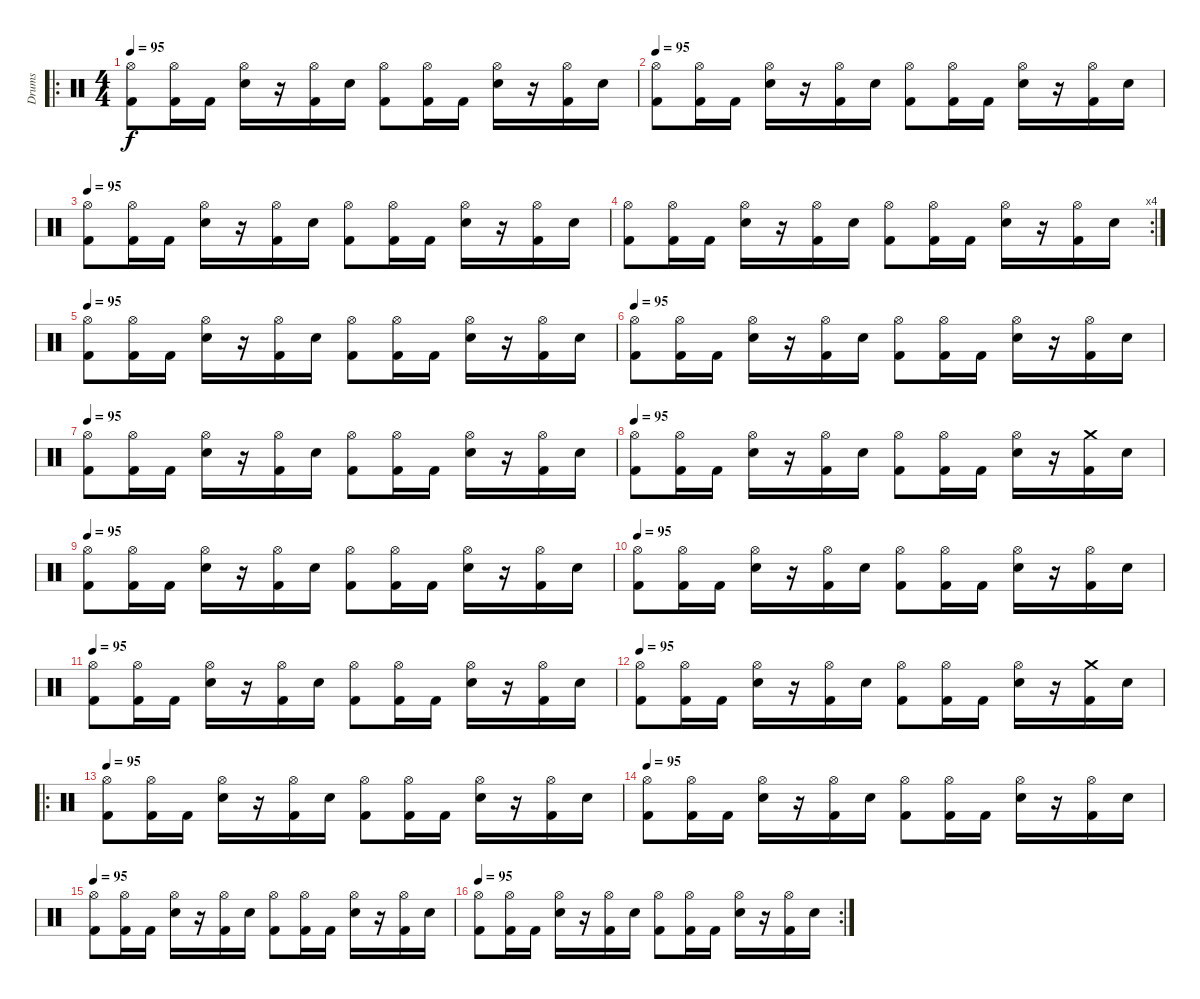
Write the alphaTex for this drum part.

\track ("Drums" "Drums") {instrument percussion}
\staff {score}
\articulation defaults
\ro
\ts (4 4)
\tempo 95
\clef neutral
\ks c
("Kick (hit) 2" "Hi-Hat (open)").8{dy f} ("Kick (hit) 2" "Hi-Hat (open)").16 "Kick (hit) 2".16 ("Electric Snare (hit)" "Hi-Hat (open)").16 r.16 ("Kick (hit) 2" "Hi-Hat (open)").16 "Electric Snare (hit)".16 ("Kick (hit) 2" "Hi-Hat (open)").8 ("Kick (hit) 2" "Hi-Hat (open)").16 "Kick (hit) 2".16 ("Electric Snare (hit)" "Hi-Hat (open)").16 r.16 ("Kick (hit) 2" "Hi-Hat (open)").16 "Electric Snare (hit)".16 |
\tempo 95
("Kick (hit) 2" "Hi-Hat (open)").8 ("Kick (hit) 2" "Hi-Hat (open)").16 "Kick (hit) 2".16 ("Electric Snare (hit)" "Hi-Hat (open)").16 r.16 ("Kick (hit) 2" "Hi-Hat (open)").16 "Electric Snare (hit)".16 ("Kick (hit) 2" "Hi-Hat (open)").8 ("Kick (hit) 2" "Hi-Hat (open)").16 "Kick (hit) 2".16 ("Electric Snare (hit)" "Hi-Hat (open)").16 r.16 ("Kick (hit) 2" "Hi-Hat (open)").16 "Electric Snare (hit)".16 |
\tempo 95
("Kick (hit) 2" "Hi-Hat (open)").8 ("Kick (hit) 2" "Hi-Hat (open)").16 "Kick (hit) 2".16 ("Electric Snare (hit)" "Hi-Hat (open)").16 r.16 ("Kick (hit) 2" "Hi-Hat (open)").16 "Electric Snare (hit)".16 ("Kick (hit) 2" "Hi-Hat (open)").8 ("Kick (hit) 2" "Hi-Hat (open)").16 "Kick (hit) 2".16 ("Electric Snare (hit)" "Hi-Hat (open)").16 r.16 ("Kick (hit) 2" "Hi-Hat (open)").16 "Electric Snare (hit)".16 |
\rc 4
("Kick (hit) 2" "Hi-Hat (open)").8 ("Kick (hit) 2" "Hi-Hat (open)").16 "Kick (hit) 2".16 ("Electric Snare (hit)" "Hi-Hat (open)").16 r.16 ("Kick (hit) 2" "Hi-Hat (open)").16 "Electric Snare (hit)".16 ("Kick (hit) 2" "Hi-Hat (open)").8 ("Kick (hit) 2" "Hi-Hat (open)").16 "Kick (hit) 2".16 ("Electric Snare (hit)" "Hi-Hat (open)").16 r.16 ("Kick (hit) 2" "Hi-Hat (open)").16 "Electric Snare (hit)".16 |
\tempo 95
("Kick (hit) 2" "Hi-Hat (open)").8 ("Kick (hit) 2" "Hi-Hat (open)").16 "Kick (hit) 2".16 ("Electric Snare (hit)" "Hi-Hat (open)").16 r.16 ("Kick (hit) 2" "Hi-Hat (open)").16 "Electric Snare (hit)".16 ("Kick (hit) 2" "Hi-Hat (open)").8 ("Kick (hit) 2" "Hi-Hat (open)").16 "Kick (hit) 2".16 ("Electric Snare (hit)" "Hi-Hat (open)").16 r.16 ("Kick (hit) 2" "Hi-Hat (open)").16 "Electric Snare (hit)".16 |
\tempo 95
("Kick (hit) 2" "Hi-Hat (open)").8 ("Kick (hit) 2" "Hi-Hat (open)").16 "Kick (hit) 2".16 ("Electric Snare (hit)" "Hi-Hat (open)").16 r.16 ("Kick (hit) 2" "Hi-Hat (open)").16 "Electric Snare (hit)".16 ("Kick (hit) 2" "Hi-Hat (open)").8 ("Kick (hit) 2" "Hi-Hat (open)").16 "Kick (hit) 2".16 ("Electric Snare (hit)" "Hi-Hat (open)").16 r.16 ("Kick (hit) 2" "Hi-Hat (open)").16 "Electric Snare (hit)".16 |
\tempo 95
("Kick (hit) 2" "Hi-Hat (open)").8 ("Kick (hit) 2" "Hi-Hat (open)").16 "Kick (hit) 2".16 ("Electric Snare (hit)" "Hi-Hat (open)").16 r.16 ("Kick (hit) 2" "Hi-Hat (open)").16 "Electric Snare (hit)".16 ("Kick (hit) 2" "Hi-Hat (open)").8 ("Kick (hit) 2" "Hi-Hat (open)").16 "Kick (hit) 2".16 ("Electric Snare (hit)" "Hi-Hat (open)").16 r.16 ("Kick (hit) 2" "Hi-Hat (open)").16 "Electric Snare (hit)".16 |
\tempo 95
("Kick (hit) 2" "Hi-Hat (open)").8 ("Kick (hit) 2" "Hi-Hat (open)").16 "Kick (hit) 2".16 ("Electric Snare (hit)" "Hi-Hat (open)").16 r.16 ("Kick (hit) 2" "Hi-Hat (open)").16 "Electric Snare (hit)".16 ("Kick (hit) 2" "Hi-Hat (open)").8 ("Kick (hit) 2" "Hi-Hat (open)").16 "Kick (hit) 2".16 ("Electric Snare (hit)" "Hi-Hat (open)").16 r.16 ("Kick (hit) 2" "Crash medium (hit)").16 "Electric Snare (hit)".16 |
\tempo 95
("Kick (hit) 2" "Hi-Hat (open)").8 ("Kick (hit) 2" "Hi-Hat (open)").16 "Kick (hit) 2".16 ("Electric Snare (hit)" "Hi-Hat (open)").16 r.16 ("Kick (hit) 2" "Hi-Hat (open)").16 "Electric Snare (hit)".16 ("Kick (hit) 2" "Hi-Hat (open)").8 ("Kick (hit) 2" "Hi-Hat (open)").16 "Kick (hit) 2".16 ("Electric Snare (hit)" "Hi-Hat (open)").16 r.16 ("Kick (hit) 2" "Hi-Hat (open)").16 "Electric Snare (hit)".16 |
\tempo 95
("Kick (hit) 2" "Hi-Hat (open)").8 ("Kick (hit) 2" "Hi-Hat (open)").16 "Kick (hit) 2".16 ("Electric Snare (hit)" "Hi-Hat (open)").16 r.16 ("Kick (hit) 2" "Hi-Hat (open)").16 "Electric Snare (hit)".16 ("Kick (hit) 2" "Hi-Hat (open)").8 ("Kick (hit) 2" "Hi-Hat (open)").16 "Kick (hit) 2".16 ("Electric Snare (hit)" "Hi-Hat (open)").16 r.16 ("Kick (hit) 2" "Hi-Hat (open)").16 "Electric Snare (hit)".16 |
\tempo 95
("Kick (hit) 2" "Hi-Hat (open)").8 ("Kick (hit) 2" "Hi-Hat (open)").16 "Kick (hit) 2".16 ("Electric Snare (hit)" "Hi-Hat (open)").16 r.16 ("Kick (hit) 2" "Hi-Hat (open)").16 "Electric Snare (hit)".16 ("Kick (hit) 2" "Hi-Hat (open)").8 ("Kick (hit) 2" "Hi-Hat (open)").16 "Kick (hit) 2".16 ("Electric Snare (hit)" "Hi-Hat (open)").16 r.16 ("Kick (hit) 2" "Hi-Hat (open)").16 "Electric Snare (hit)".16 |
\tempo 95
("Kick (hit) 2" "Hi-Hat (open)").8 ("Kick (hit) 2" "Hi-Hat (open)").16 "Kick (hit) 2".16 ("Electric Snare (hit)" "Hi-Hat (open)").16 r.16 ("Kick (hit) 2" "Hi-Hat (open)").16 "Electric Snare (hit)".16 ("Kick (hit) 2" "Hi-Hat (open)").8 ("Kick (hit) 2" "Hi-Hat (open)").16 "Kick (hit) 2".16 ("Electric Snare (hit)" "Hi-Hat (open)").16 r.16 ("Kick (hit) 2" "Crash medium (hit)").16 "Electric Snare (hit)".16 |
\ro
\tempo 95
("Kick (hit) 2" "Hi-Hat (open)").8 ("Kick (hit) 2" "Hi-Hat (open)").16 "Kick (hit) 2".16 ("Electric Snare (hit)" "Hi-Hat (open)").16 r.16 ("Kick (hit) 2" "Hi-Hat (open)").16 "Electric Snare (hit)".16 ("Kick (hit) 2" "Hi-Hat (open)").8 ("Kick (hit) 2" "Hi-Hat (open)").16 "Kick (hit) 2".16 ("Electric Snare (hit)" "Hi-Hat (open)").16 r.16 ("Kick (hit) 2" "Hi-Hat (open)").16 "Electric Snare (hit)".16 |
\tempo 95
("Kick (hit) 2" "Hi-Hat (open)").8 ("Kick (hit) 2" "Hi-Hat (open)").16 "Kick (hit) 2".16 ("Electric Snare (hit)" "Hi-Hat (open)").16 r.16 ("Kick (hit) 2" "Hi-Hat (open)").16 "Electric Snare (hit)".16 ("Kick (hit) 2" "Hi-Hat (open)").8 ("Kick (hit) 2" "Hi-Hat (open)").16 "Kick (hit) 2".16 ("Electric Snare (hit)" "Hi-Hat (open)").16 r.16 ("Kick (hit) 2" "Hi-Hat (open)").16 "Electric Snare (hit)".16 |
\tempo 95
("Kick (hit) 2" "Hi-Hat (open)").8 ("Kick (hit) 2" "Hi-Hat (open)").16 "Kick (hit) 2".16 ("Electric Snare (hit)" "Hi-Hat (open)").16 r.16 ("Kick (hit) 2" "Hi-Hat (open)").16 "Electric Snare (hit)".16 ("Kick (hit) 2" "Hi-Hat (open)").8 ("Kick (hit) 2" "Hi-Hat (open)").16 "Kick (hit) 2".16 ("Electric Snare (hit)" "Hi-Hat (open)").16 r.16 ("Kick (hit) 2" "Hi-Hat (open)").16 "Electric Snare (hit)".16 |
\rc 2
\tempo 95
("Kick (hit) 2" "Hi-Hat (open)").8 ("Kick (hit) 2" "Hi-Hat (open)").16 "Kick (hit) 2".16 ("Electric Snare (hit)" "Hi-Hat (open)").16 r.16 ("Kick (hit) 2" "Hi-Hat (open)").16 "Electric Snare (hit)".16 ("Kick (hit) 2" "Hi-Hat (open)").8 ("Kick (hit) 2" "Hi-Hat (open)").16 "Kick (hit) 2".16 ("Electric Snare (hit)" "Hi-Hat (open)").16 r.16 ("Kick (hit) 2" "Hi-Hat (open)").16 "Electric Snare (hit)".16
